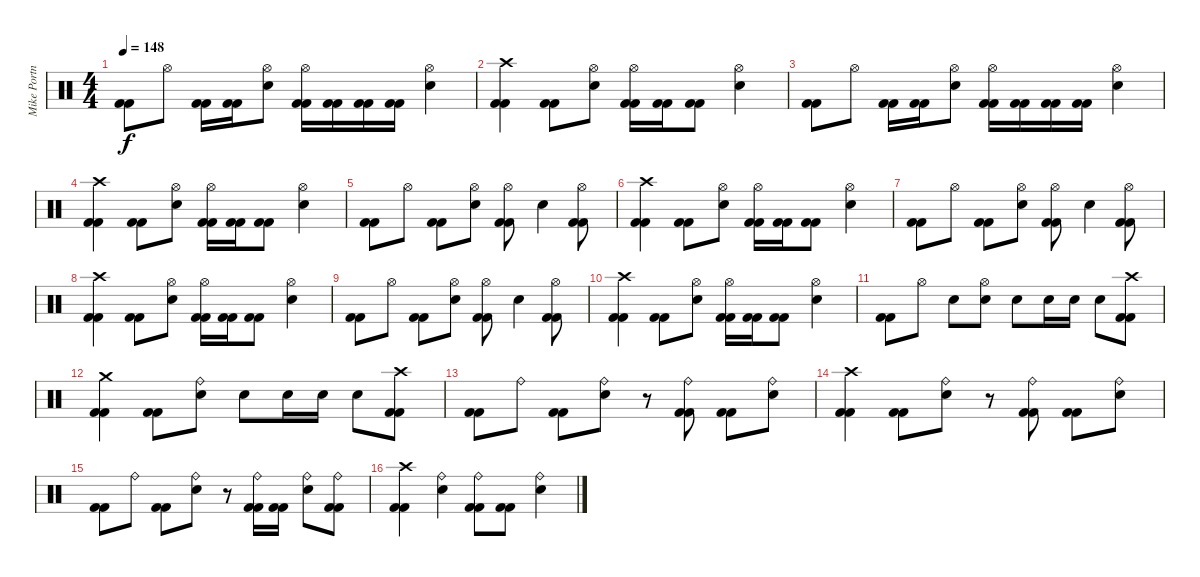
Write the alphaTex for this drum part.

\track ("Mike Portnoy - Drum" "Mike Portn") {instrument percussion}
\staff {score}
\articulation defaults
\ts (4 4)
\tempo 148
\clef neutral
\ks c
("Kick (hit) 2" "Kick (hit) 2").8{dy f} "Hi-Hat (open)".8 ("Kick (hit) 2" "Kick (hit) 2").16 ("Kick (hit) 2" "Kick (hit) 2").16 ("Hi-Hat (open)" "Snare (hit) 2").8 ("Hi-Hat (open)" "Kick (hit) 2" "Kick (hit) 2").16 ("Kick (hit) 2" "Kick (hit) 2").16 ("Kick (hit) 2" "Kick (hit) 2").16 ("Kick (hit) 2" "Kick (hit) 2").16 ("Hi-Hat (open)" "Snare (hit) 2").4 |
("Crash high (hit)" "Kick (hit) 2" "Kick (hit) 2").4 ("Kick (hit) 2" "Kick (hit) 2").8 ("Hi-Hat (open)" "Snare (hit) 2").8 ("Hi-Hat (open)" "Kick (hit) 2" "Kick (hit) 2").16 ("Kick (hit) 2" "Kick (hit) 2").16 ("Kick (hit) 2" "Kick (hit) 2").8 ("Hi-Hat (open)" "Snare (hit) 2").4 |
("Kick (hit) 2" "Kick (hit) 2").8 "Hi-Hat (open)".8 ("Kick (hit) 2" "Kick (hit) 2").16 ("Kick (hit) 2" "Kick (hit) 2").16 ("Hi-Hat (open)" "Snare (hit) 2").8 ("Hi-Hat (open)" "Kick (hit) 2" "Kick (hit) 2").16 ("Kick (hit) 2" "Kick (hit) 2").16 ("Kick (hit) 2" "Kick (hit) 2").16 ("Kick (hit) 2" "Kick (hit) 2").16 ("Hi-Hat (open)" "Snare (hit) 2").4 |
("Crash high (hit)" "Kick (hit) 2" "Kick (hit) 2").4 ("Kick (hit) 2" "Kick (hit) 2").8 ("Hi-Hat (open)" "Snare (hit) 2").8 ("Hi-Hat (open)" "Kick (hit) 2" "Kick (hit) 2").16 ("Kick (hit) 2" "Kick (hit) 2").16 ("Kick (hit) 2" "Kick (hit) 2").8 ("Hi-Hat (open)" "Snare (hit) 2").4 |
("Kick (hit) 2" "Kick (hit) 2").8 "Hi-Hat (open)".8 ("Kick (hit) 2" "Kick (hit) 2").8 ("Hi-Hat (open)" "Snare (hit) 2").8 ("Hi-Hat (open)" "Kick (hit) 2" "Kick (hit) 2").8 "Snare (hit) 2".4 ("Hi-Hat (open)" "Kick (hit) 2" "Kick (hit) 2").8 |
("Crash high (hit)" "Kick (hit) 2" "Kick (hit) 2").4 ("Kick (hit) 2" "Kick (hit) 2").8 ("Hi-Hat (open)" "Snare (hit) 2").8 ("Hi-Hat (open)" "Kick (hit) 2" "Kick (hit) 2").16 ("Kick (hit) 2" "Kick (hit) 2").16 ("Kick (hit) 2" "Kick (hit) 2").8 ("Hi-Hat (open)" "Snare (hit) 2").4 |
("Kick (hit) 2" "Kick (hit) 2").8 "Hi-Hat (open)".8 ("Kick (hit) 2" "Kick (hit) 2").8 ("Hi-Hat (open)" "Snare (hit) 2").8 ("Hi-Hat (open)" "Kick (hit) 2" "Kick (hit) 2").8 "Snare (hit) 2".4 ("Hi-Hat (open)" "Kick (hit) 2" "Kick (hit) 2").8 |
("Crash high (hit)" "Kick (hit) 2" "Kick (hit) 2").4 ("Kick (hit) 2" "Kick (hit) 2").8 ("Hi-Hat (open)" "Snare (hit) 2").8 ("Hi-Hat (open)" "Kick (hit) 2" "Kick (hit) 2").16 ("Kick (hit) 2" "Kick (hit) 2").16 ("Kick (hit) 2" "Kick (hit) 2").8 ("Hi-Hat (open)" "Snare (hit) 2").4 |
("Kick (hit) 2" "Kick (hit) 2").8 "Hi-Hat (open)".8 ("Kick (hit) 2" "Kick (hit) 2").8 ("Hi-Hat (open)" "Snare (hit) 2").8 ("Hi-Hat (open)" "Kick (hit) 2" "Kick (hit) 2").8 "Snare (hit) 2".4 ("Hi-Hat (open)" "Kick (hit) 2" "Kick (hit) 2").8 |
("Crash high (hit)" "Kick (hit) 2" "Kick (hit) 2").4 ("Kick (hit) 2" "Kick (hit) 2").8 ("Hi-Hat (open)" "Snare (hit) 2").8 ("Hi-Hat (open)" "Kick (hit) 2" "Kick (hit) 2").16 ("Kick (hit) 2" "Kick (hit) 2").16 ("Kick (hit) 2" "Kick (hit) 2").8 ("Hi-Hat (open)" "Snare (hit) 2").4 |
("Kick (hit) 2" "Kick (hit) 2").8 "Hi-Hat (open)".8 "Snare (hit) 2".8 ("Hi-Hat (open)" "Snare (hit) 2").8 "Snare (hit) 2".8 "Snare (hit) 2".16 "Snare (hit) 2".16 "Snare (hit) 2".8 ("Crash high (hit)" "Kick (hit) 2" "Kick (hit) 2").8 |
("Crash medium (hit)" "Kick (hit) 2" "Kick (hit) 2").4 ("Kick (hit) 2" "Kick (hit) 2").8 ("Ride (bell)" "Snare (hit) 2").8 "Snare (hit) 2".8 "Snare (hit) 2".16 "Snare (hit) 2".16 "Snare (hit) 2".8 ("Crash high (hit)" "Kick (hit) 2" "Kick (hit) 2").8 |
("Kick (hit) 2" "Kick (hit) 2").8 "Ride (bell)".8 ("Kick (hit) 2" "Kick (hit) 2").8 ("Ride (bell)" "Snare (hit) 2").8 r.8 ("Ride (bell)" "Kick (hit) 2" "Kick (hit) 2").8 ("Kick (hit) 2" "Kick (hit) 2").8 ("Ride (bell)" "Snare (hit) 2").8 |
("Crash high (hit)" "Kick (hit) 2" "Kick (hit) 2").4 ("Kick (hit) 2" "Kick (hit) 2").8 ("Ride (bell)" "Snare (hit) 2").8 r.8 ("Ride (bell)" "Kick (hit) 2" "Kick (hit) 2").8 ("Kick (hit) 2" "Kick (hit) 2").8 ("Ride (bell)" "Snare (hit) 2").8 |
("Kick (hit) 2" "Kick (hit) 2").8 "Ride (bell)".8 ("Kick (hit) 2" "Kick (hit) 2").8 ("Ride (bell)" "Snare (hit) 2").8 r.8 ("Ride (bell)" "Kick (hit) 2" "Kick (hit) 2").16 ("Kick (hit) 2" "Kick (hit) 2").16 ("Ride (bell)" "Snare (hit) 2").8 ("Ride (bell)" "Kick (hit) 2" "Kick (hit) 2").8 |
("Crash high (hit)" "Kick (hit) 2" "Kick (hit) 2").4 ("Ride (bell)" "Snare (hit) 2").4 ("Ride (bell)" "Kick (hit) 2" "Kick (hit) 2").8 ("Kick (hit) 2" "Kick (hit) 2").8 ("Ride (bell)" "Snare (hit) 2").4
